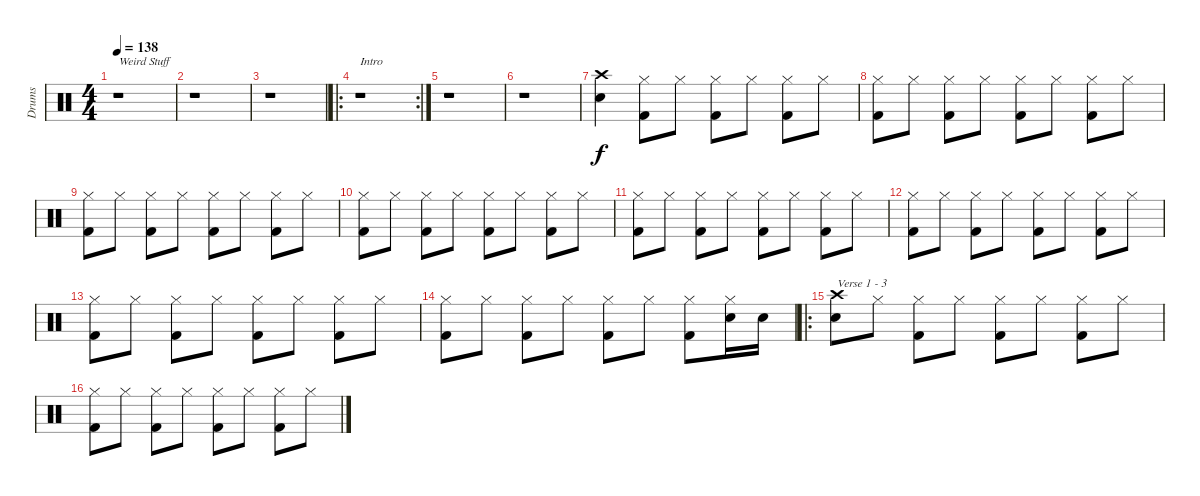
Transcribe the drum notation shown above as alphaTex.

\track ("Drums" "Drums") {instrument percussion}
\staff {score}
\articulation defaults
\ts (4 4)
\tempo 138
\clef neutral
\ks c
r.1{txt "Weird Stuff" dy f} |
r.1 |
r.1 |
\ro
\rc 2
r.1{txt "Intro"} |
r.1 |
r.1 |
("Electric Snare (hit)" "Crash high (hit)").4 ("Hi-Hat (closed)" "Kick (hit) 2").8 "Hi-Hat (closed)".8 ("Hi-Hat (closed)" "Kick (hit) 2").8 "Hi-Hat (closed)".8 ("Hi-Hat (closed)" "Kick (hit) 2").8 "Hi-Hat (closed)".8 |
("Hi-Hat (closed)" "Kick (hit) 2").8 "Hi-Hat (closed)".8 ("Hi-Hat (closed)" "Kick (hit) 2").8 "Hi-Hat (closed)".8 ("Hi-Hat (closed)" "Kick (hit) 2").8 "Hi-Hat (closed)".8 ("Hi-Hat (closed)" "Kick (hit) 2").8 "Hi-Hat (closed)".8 |
("Hi-Hat (closed)" "Kick (hit) 2").8 "Hi-Hat (closed)".8 ("Hi-Hat (closed)" "Kick (hit) 2").8 "Hi-Hat (closed)".8 ("Hi-Hat (closed)" "Kick (hit) 2").8 "Hi-Hat (closed)".8 ("Hi-Hat (closed)" "Kick (hit) 2").8 "Hi-Hat (closed)".8 |
("Hi-Hat (closed)" "Kick (hit) 2").8 "Hi-Hat (closed)".8 ("Hi-Hat (closed)" "Kick (hit) 2").8 "Hi-Hat (closed)".8 ("Hi-Hat (closed)" "Kick (hit) 2").8 "Hi-Hat (closed)".8 ("Hi-Hat (closed)" "Kick (hit) 2").8 "Hi-Hat (closed)".8 |
("Hi-Hat (closed)" "Kick (hit) 2").8 "Hi-Hat (closed)".8 ("Hi-Hat (closed)" "Kick (hit) 2").8 "Hi-Hat (closed)".8 ("Hi-Hat (closed)" "Kick (hit) 2").8 "Hi-Hat (closed)".8 ("Hi-Hat (closed)" "Kick (hit) 2").8 "Hi-Hat (closed)".8 |
("Hi-Hat (closed)" "Kick (hit) 2").8 "Hi-Hat (closed)".8 ("Hi-Hat (closed)" "Kick (hit) 2").8 "Hi-Hat (closed)".8 ("Hi-Hat (closed)" "Kick (hit) 2").8 "Hi-Hat (closed)".8 ("Hi-Hat (closed)" "Kick (hit) 2").8 "Hi-Hat (closed)".8 |
("Hi-Hat (closed)" "Kick (hit) 2").8 "Hi-Hat (closed)".8 ("Hi-Hat (closed)" "Kick (hit) 2").8 "Hi-Hat (closed)".8 ("Hi-Hat (closed)" "Kick (hit) 2").8 "Hi-Hat (closed)".8 ("Hi-Hat (closed)" "Kick (hit) 2").8 "Hi-Hat (closed)".8 |
("Hi-Hat (closed)" "Kick (hit) 2").8 "Hi-Hat (closed)".8 ("Hi-Hat (closed)" "Kick (hit) 2").8 "Hi-Hat (closed)".8 ("Hi-Hat (closed)" "Kick (hit) 2").8 "Hi-Hat (closed)".8 ("Hi-Hat (closed)" "Kick (hit) 2").8 ("Hi-Hat (closed)" "Electric Snare (hit)").16 "Electric Snare (hit)".16 |
\ro
("Electric Snare (hit)" "Crash high (hit)").8{txt "Verse 1 - 3"} "Hi-Hat (closed)".8 ("Hi-Hat (closed)" "Kick (hit) 2").8 "Hi-Hat (closed)".8 ("Hi-Hat (closed)" "Kick (hit) 2").8 "Hi-Hat (closed)".8 ("Hi-Hat (closed)" "Kick (hit) 2").8 "Hi-Hat (closed)".8 |
("Hi-Hat (closed)" "Kick (hit) 2").8 "Hi-Hat (closed)".8 ("Hi-Hat (closed)" "Kick (hit) 2").8 "Hi-Hat (closed)".8 ("Hi-Hat (closed)" "Kick (hit) 2").8 "Hi-Hat (closed)".8 ("Hi-Hat (closed)" "Kick (hit) 2").8 "Hi-Hat (closed)".8
